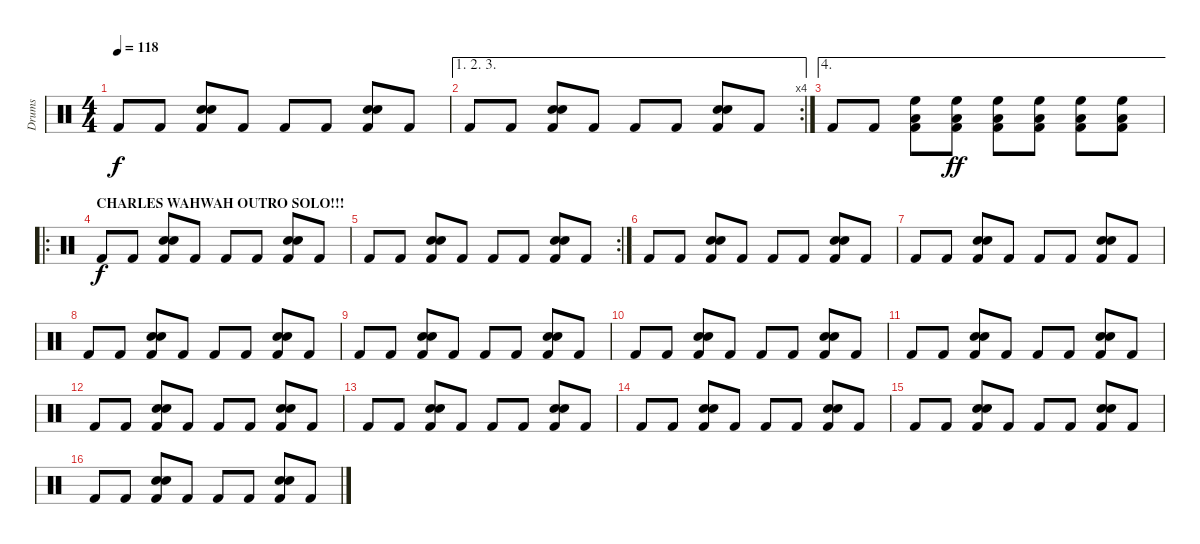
\track ("Drums" "Drums") {instrument percussion}
\staff {score}
\articulation defaults
\ts (4 4)
\tempo 118
\clef neutral
\ks c "Kick (hit) 2".8{dy f} "Kick (hit) 2".8
("Snare (hit) 2" "Electric Snare (hit)" "Kick (hit) 2").8 "Kick (hit) 2".8 "Kick (hit) 2".8 "Kick (hit) 2".8 ("Snare (hit) 2" "Electric Snare (hit)" "Kick (hit) 2").8 "Kick (hit) 2".8 |
\ae (1 2 3)
\rc 4 "Kick (hit) 2".8 "Kick (hit) 2".8
("Snare (hit) 2" "Electric Snare (hit)" "Kick (hit) 2").8 "Kick (hit) 2".8 "Kick (hit) 2".8 "Kick (hit) 2".8 ("Snare (hit) 2" "Electric Snare (hit)" "Kick (hit) 2").8 "Kick (hit) 2".8 |
\ae 4 "Kick (hit) 2".8 "Kick (hit) 2".8
("Low Tom (hit)" "High Floor Tom (hit)" "Kick (hit) 2").8 ("Low Tom (hit)" "High Floor Tom (hit)" "Kick (hit) 2").8{dy ff} ("Low Tom (hit)" "High Floor Tom (hit)" "Kick (hit) 2").8 ("Low Tom (hit)" "High Floor Tom (hit)" "Kick (hit) 2").8 ("Low Tom (hit)" "High Floor Tom (hit)" "Kick (hit) 2").8 ("Low Tom (hit)" "High Floor Tom (hit)" "Kick (hit) 2").8 |
\ro
\section ("" "CHARLES WAHWAH OUTRO SOLO!!!")
"Kick (hit) 2".8{dy f} "Kick (hit) 2".8 ("Snare (hit) 2" "Electric Snare (hit)" "Kick (hit) 2").8 "Kick (hit) 2".8 "Kick (hit) 2".8 "Kick (hit) 2".8 ("Snare (hit) 2" "Electric Snare (hit)" "Kick (hit) 2").8 "Kick (hit) 2".8 |
\rc 2 "Kick (hit) 2".8 "Kick (hit) 2".8
("Snare (hit) 2" "Electric Snare (hit)" "Kick (hit) 2").8 "Kick (hit) 2".8 "Kick (hit) 2".8 "Kick (hit) 2".8 ("Snare (hit) 2" "Electric Snare (hit)" "Kick (hit) 2").8 "Kick (hit) 2".8 |
"Kick (hit) 2".8 "Kick (hit) 2".8 ("Snare (hit) 2" "Electric Snare (hit)" "Kick (hit) 2").8 "Kick (hit) 2".8 "Kick (hit) 2".8 "Kick (hit) 2".8 ("Snare (hit) 2" "Electric Snare (hit)" "Kick (hit) 2").8 "Kick (hit) 2".8 |
"Kick (hit) 2".8 "Kick (hit) 2".8 ("Snare (hit) 2" "Electric Snare (hit)" "Kick (hit) 2").8 "Kick (hit) 2".8 "Kick (hit) 2".8 "Kick (hit) 2".8 ("Snare (hit) 2" "Electric Snare (hit)" "Kick (hit) 2").8 "Kick (hit) 2".8 |
"Kick (hit) 2".8 "Kick (hit) 2".8 ("Snare (hit) 2" "Electric Snare (hit)" "Kick (hit) 2").8 "Kick (hit) 2".8 "Kick (hit) 2".8 "Kick (hit) 2".8 ("Snare (hit) 2" "Electric Snare (hit)" "Kick (hit) 2").8 "Kick (hit) 2".8 |
"Kick (hit) 2".8 "Kick (hit) 2".8 ("Snare (hit) 2" "Electric Snare (hit)" "Kick (hit) 2").8 "Kick (hit) 2".8 "Kick (hit) 2".8 "Kick (hit) 2".8 ("Snare (hit) 2" "Electric Snare (hit)" "Kick (hit) 2").8 "Kick (hit) 2".8 |
"Kick (hit) 2".8 "Kick (hit) 2".8 ("Snare (hit) 2" "Electric Snare (hit)" "Kick (hit) 2").8 "Kick (hit) 2".8 "Kick (hit) 2".8 "Kick (hit) 2".8 ("Snare (hit) 2" "Electric Snare (hit)" "Kick (hit) 2").8 "Kick (hit) 2".8 |
"Kick (hit) 2".8 "Kick (hit) 2".8 ("Snare (hit) 2" "Electric Snare (hit)" "Kick (hit) 2").8 "Kick (hit) 2".8 "Kick (hit) 2".8 "Kick (hit) 2".8 ("Snare (hit) 2" "Electric Snare (hit)" "Kick (hit) 2").8 "Kick (hit) 2".8 |
"Kick (hit) 2".8 "Kick (hit) 2".8 ("Snare (hit) 2" "Electric Snare (hit)" "Kick (hit) 2").8 "Kick (hit) 2".8 "Kick (hit) 2".8 "Kick (hit) 2".8 ("Snare (hit) 2" "Electric Snare (hit)" "Kick (hit) 2").8 "Kick (hit) 2".8 |
"Kick (hit) 2".8 "Kick (hit) 2".8 ("Snare (hit) 2" "Electric Snare (hit)" "Kick (hit) 2").8 "Kick (hit) 2".8 "Kick (hit) 2".8 "Kick (hit) 2".8 ("Snare (hit) 2" "Electric Snare (hit)" "Kick (hit) 2").8 "Kick (hit) 2".8 |
"Kick (hit) 2".8 "Kick (hit) 2".8 ("Snare (hit) 2" "Electric Snare (hit)" "Kick (hit) 2").8 "Kick (hit) 2".8 "Kick (hit) 2".8 "Kick (hit) 2".8 ("Snare (hit) 2" "Electric Snare (hit)" "Kick (hit) 2").8 "Kick (hit) 2".8 |
"Kick (hit) 2".8 "Kick (hit) 2".8 ("Snare (hit) 2" "Electric Snare (hit)" "Kick (hit) 2").8 "Kick (hit) 2".8 "Kick (hit) 2".8 "Kick (hit) 2".8 ("Snare (hit) 2" "Electric Snare (hit)" "Kick (hit) 2").8 "Kick (hit) 2".8 |
"Kick (hit) 2".8 "Kick (hit) 2".8 ("Snare (hit) 2" "Electric Snare (hit)" "Kick (hit) 2").8 "Kick (hit) 2".8 "Kick (hit) 2".8 "Kick (hit) 2".8 ("Snare (hit) 2" "Electric Snare (hit)" "Kick (hit) 2").8 "Kick (hit) 2".8
